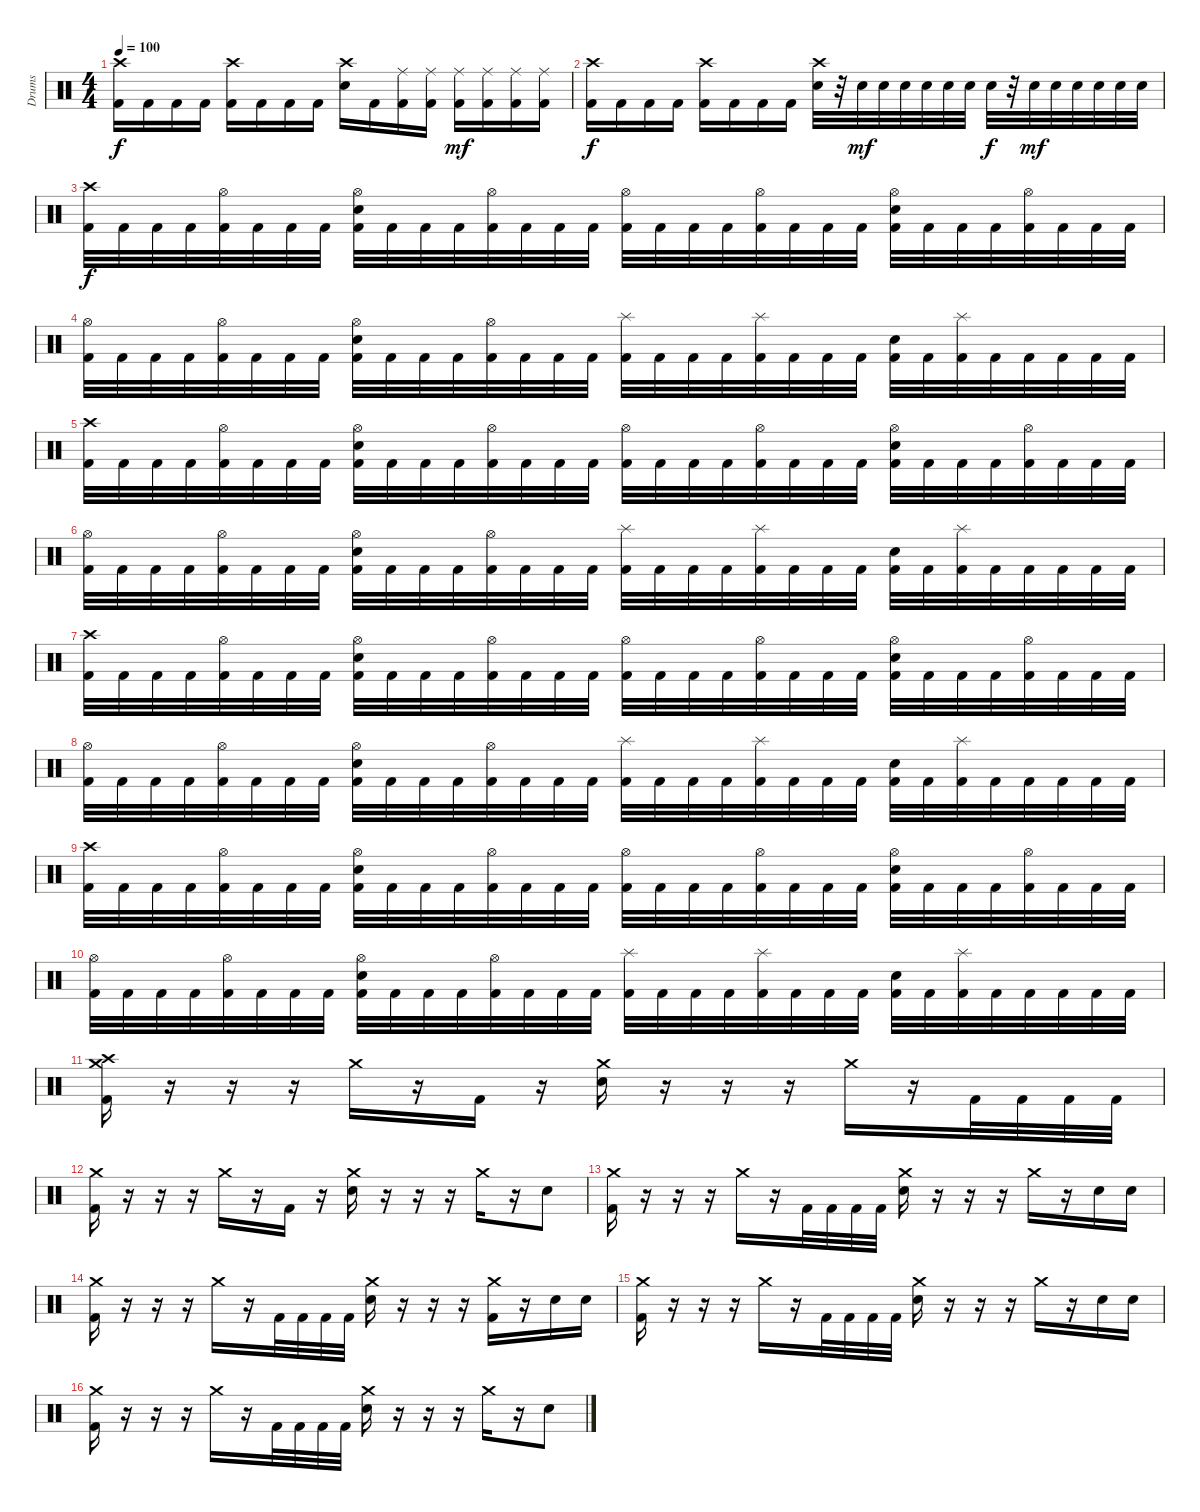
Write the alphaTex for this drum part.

\track ("Drums " "Drums ") {instrument percussion}
\staff {score}
\articulation defaults
\ts (4 4)
\tempo 100
\clef neutral
\ks c
("Crash high (hit)" "Kick (hit) 2").16{dy f} "Kick (hit) 2".16 "Kick (hit) 2".16 "Kick (hit) 2".16 ("Crash high (hit)" "Kick (hit) 2").16 "Kick (hit) 2".16 "Kick (hit) 2".16 "Kick (hit) 2".16 ("Crash high (hit)" "Electric Snare (hit)").16 "Kick (hit) 2".16 ("Ride (middle)" "Kick (hit) 2").16 ("Ride (middle)" "Kick (hit) 2").16 ("Ride (middle)" "Kick (hit) 2").16{dy mf} ("Ride (middle)" "Kick (hit) 2").16 ("Ride (middle)" "Kick (hit) 2").16 ("Ride (middle)" "Kick (hit) 2").16 |
("Crash high (hit)" "Kick (hit) 2").16{dy f} "Kick (hit) 2".16 "Kick (hit) 2".16 "Kick (hit) 2".16 ("Crash high (hit)" "Kick (hit) 2").16 "Kick (hit) 2".16 "Kick (hit) 2".16 "Kick (hit) 2".16 ("Crash high (hit)" "Electric Snare (hit)").32 r.32 "Electric Snare (hit)".32{dy mf} "Electric Snare (hit)".32 "Electric Snare (hit)".32 "Electric Snare (hit)".32 "Electric Snare (hit)".32 "Electric Snare (hit)".32 "Electric Snare (hit)".32{dy f} r.32 "Electric Snare (hit)".32{dy mf} "Electric Snare (hit)".32 "Electric Snare (hit)".32 "Electric Snare (hit)".32 "Electric Snare (hit)".32 "Electric Snare (hit)".32 |
("Crash high (hit)" "Kick (hit) 2").32{dy f} "Kick (hit) 2".32 "Kick (hit) 2".32 "Kick (hit) 2".32 ("Hi-Hat (open)" "Kick (hit) 2").32 "Kick (hit) 2".32 "Kick (hit) 2".32 "Kick (hit) 2".32 ("Hi-Hat (open)" "Electric Snare (hit)" "Kick (hit) 2").32 "Kick (hit) 2".32 "Kick (hit) 2".32 "Kick (hit) 2".32 ("Hi-Hat (open)" "Kick (hit) 2").32 "Kick (hit) 2".32 "Kick (hit) 2".32 "Kick (hit) 2".32 ("Hi-Hat (open)" "Kick (hit) 2").32 "Kick (hit) 2".32 "Kick (hit) 2".32 "Kick (hit) 2".32 ("Hi-Hat (open)" "Kick (hit) 2").32 "Kick (hit) 2".32 "Kick (hit) 2".32 "Kick (hit) 2".32 ("Hi-Hat (open)" "Electric Snare (hit)" "Kick (hit) 2").32 "Kick (hit) 2".32 "Kick (hit) 2".32 "Kick (hit) 2".32 ("Hi-Hat (open)" "Kick (hit) 2").32 "Kick (hit) 2".32 "Kick (hit) 2".32 "Kick (hit) 2".32 |
("Hi-Hat (open)" "Kick (hit) 2").32 "Kick (hit) 2".32 "Kick (hit) 2".32 "Kick (hit) 2".32 ("Hi-Hat (open)" "Kick (hit) 2").32 "Kick (hit) 2".32 "Kick (hit) 2".32 "Kick (hit) 2".32 ("Hi-Hat (open)" "Electric Snare (hit)" "Kick (hit) 2").32 "Kick (hit) 2".32 "Kick (hit) 2".32 "Kick (hit) 2".32 ("Hi-Hat (open)" "Kick (hit) 2").32 "Kick (hit) 2".32 "Kick (hit) 2".32 "Kick (hit) 2".32 ("Splash (hit)" "Kick (hit) 2").32 "Kick (hit) 2".32 "Kick (hit) 2".32 "Kick (hit) 2".32 ("Splash (hit)" "Kick (hit) 2").32 "Kick (hit) 2".32 "Kick (hit) 2".32 "Kick (hit) 2".32 ("Electric Snare (hit)" "Kick (hit) 2").32 "Kick (hit) 2".32 ("Splash (hit)" "Kick (hit) 2").32 "Kick (hit) 2".32 "Kick (hit) 2".32 "Kick (hit) 2".32 "Kick (hit) 2".32 "Kick (hit) 2".32 |
("Crash high (hit)" "Kick (hit) 2").32 "Kick (hit) 2".32 "Kick (hit) 2".32 "Kick (hit) 2".32 ("Hi-Hat (open)" "Kick (hit) 2").32 "Kick (hit) 2".32 "Kick (hit) 2".32 "Kick (hit) 2".32 ("Hi-Hat (open)" "Electric Snare (hit)" "Kick (hit) 2").32 "Kick (hit) 2".32 "Kick (hit) 2".32 "Kick (hit) 2".32 ("Hi-Hat (open)" "Kick (hit) 2").32 "Kick (hit) 2".32 "Kick (hit) 2".32 "Kick (hit) 2".32 ("Hi-Hat (open)" "Kick (hit) 2").32 "Kick (hit) 2".32 "Kick (hit) 2".32 "Kick (hit) 2".32 ("Hi-Hat (open)" "Kick (hit) 2").32 "Kick (hit) 2".32 "Kick (hit) 2".32 "Kick (hit) 2".32 ("Hi-Hat (open)" "Electric Snare (hit)" "Kick (hit) 2").32 "Kick (hit) 2".32 "Kick (hit) 2".32 "Kick (hit) 2".32 ("Hi-Hat (open)" "Kick (hit) 2").32 "Kick (hit) 2".32 "Kick (hit) 2".32 "Kick (hit) 2".32 |
("Hi-Hat (open)" "Kick (hit) 2").32 "Kick (hit) 2".32 "Kick (hit) 2".32 "Kick (hit) 2".32 ("Hi-Hat (open)" "Kick (hit) 2").32 "Kick (hit) 2".32 "Kick (hit) 2".32 "Kick (hit) 2".32 ("Hi-Hat (open)" "Electric Snare (hit)" "Kick (hit) 2").32 "Kick (hit) 2".32 "Kick (hit) 2".32 "Kick (hit) 2".32 ("Hi-Hat (open)" "Kick (hit) 2").32 "Kick (hit) 2".32 "Kick (hit) 2".32 "Kick (hit) 2".32 ("Splash (hit)" "Kick (hit) 2").32 "Kick (hit) 2".32 "Kick (hit) 2".32 "Kick (hit) 2".32 ("Splash (hit)" "Kick (hit) 2").32 "Kick (hit) 2".32 "Kick (hit) 2".32 "Kick (hit) 2".32 ("Electric Snare (hit)" "Kick (hit) 2").32 "Kick (hit) 2".32 ("Splash (hit)" "Kick (hit) 2").32 "Kick (hit) 2".32 "Kick (hit) 2".32 "Kick (hit) 2".32 "Kick (hit) 2".32 "Kick (hit) 2".32 |
("Crash high (hit)" "Kick (hit) 2").32 "Kick (hit) 2".32 "Kick (hit) 2".32 "Kick (hit) 2".32 ("Hi-Hat (open)" "Kick (hit) 2").32 "Kick (hit) 2".32 "Kick (hit) 2".32 "Kick (hit) 2".32 ("Hi-Hat (open)" "Electric Snare (hit)" "Kick (hit) 2").32 "Kick (hit) 2".32 "Kick (hit) 2".32 "Kick (hit) 2".32 ("Hi-Hat (open)" "Kick (hit) 2").32 "Kick (hit) 2".32 "Kick (hit) 2".32 "Kick (hit) 2".32 ("Hi-Hat (open)" "Kick (hit) 2").32 "Kick (hit) 2".32 "Kick (hit) 2".32 "Kick (hit) 2".32 ("Hi-Hat (open)" "Kick (hit) 2").32 "Kick (hit) 2".32 "Kick (hit) 2".32 "Kick (hit) 2".32 ("Hi-Hat (open)" "Electric Snare (hit)" "Kick (hit) 2").32 "Kick (hit) 2".32 "Kick (hit) 2".32 "Kick (hit) 2".32 ("Hi-Hat (open)" "Kick (hit) 2").32 "Kick (hit) 2".32 "Kick (hit) 2".32 "Kick (hit) 2".32 |
("Hi-Hat (open)" "Kick (hit) 2").32 "Kick (hit) 2".32 "Kick (hit) 2".32 "Kick (hit) 2".32 ("Hi-Hat (open)" "Kick (hit) 2").32 "Kick (hit) 2".32 "Kick (hit) 2".32 "Kick (hit) 2".32 ("Hi-Hat (open)" "Electric Snare (hit)" "Kick (hit) 2").32 "Kick (hit) 2".32 "Kick (hit) 2".32 "Kick (hit) 2".32 ("Hi-Hat (open)" "Kick (hit) 2").32 "Kick (hit) 2".32 "Kick (hit) 2".32 "Kick (hit) 2".32 ("Splash (hit)" "Kick (hit) 2").32 "Kick (hit) 2".32 "Kick (hit) 2".32 "Kick (hit) 2".32 ("Splash (hit)" "Kick (hit) 2").32 "Kick (hit) 2".32 "Kick (hit) 2".32 "Kick (hit) 2".32 ("Electric Snare (hit)" "Kick (hit) 2").32 "Kick (hit) 2".32 ("Splash (hit)" "Kick (hit) 2").32 "Kick (hit) 2".32 "Kick (hit) 2".32 "Kick (hit) 2".32 "Kick (hit) 2".32 "Kick (hit) 2".32 |
("Crash high (hit)" "Kick (hit) 2").32 "Kick (hit) 2".32 "Kick (hit) 2".32 "Kick (hit) 2".32 ("Hi-Hat (open)" "Kick (hit) 2").32 "Kick (hit) 2".32 "Kick (hit) 2".32 "Kick (hit) 2".32 ("Hi-Hat (open)" "Electric Snare (hit)" "Kick (hit) 2").32 "Kick (hit) 2".32 "Kick (hit) 2".32 "Kick (hit) 2".32 ("Hi-Hat (open)" "Kick (hit) 2").32 "Kick (hit) 2".32 "Kick (hit) 2".32 "Kick (hit) 2".32 ("Hi-Hat (open)" "Kick (hit) 2").32 "Kick (hit) 2".32 "Kick (hit) 2".32 "Kick (hit) 2".32 ("Hi-Hat (open)" "Kick (hit) 2").32 "Kick (hit) 2".32 "Kick (hit) 2".32 "Kick (hit) 2".32 ("Hi-Hat (open)" "Electric Snare (hit)" "Kick (hit) 2").32 "Kick (hit) 2".32 "Kick (hit) 2".32 "Kick (hit) 2".32 ("Hi-Hat (open)" "Kick (hit) 2").32 "Kick (hit) 2".32 "Kick (hit) 2".32 "Kick (hit) 2".32 |
("Hi-Hat (open)" "Kick (hit) 2").32 "Kick (hit) 2".32 "Kick (hit) 2".32 "Kick (hit) 2".32 ("Hi-Hat (open)" "Kick (hit) 2").32 "Kick (hit) 2".32 "Kick (hit) 2".32 "Kick (hit) 2".32 ("Hi-Hat (open)" "Electric Snare (hit)" "Kick (hit) 2").32 "Kick (hit) 2".32 "Kick (hit) 2".32 "Kick (hit) 2".32 ("Hi-Hat (open)" "Kick (hit) 2").32 "Kick (hit) 2".32 "Kick (hit) 2".32 "Kick (hit) 2".32 ("Splash (hit)" "Kick (hit) 2").32 "Kick (hit) 2".32 "Kick (hit) 2".32 "Kick (hit) 2".32 ("Splash (hit)" "Kick (hit) 2").32 "Kick (hit) 2".32 "Kick (hit) 2".32 "Kick (hit) 2".32 ("Electric Snare (hit)" "Kick (hit) 2").32 "Kick (hit) 2".32 ("Splash (hit)" "Kick (hit) 2").32 "Kick (hit) 2".32 "Kick (hit) 2".32 "Kick (hit) 2".32 "Kick (hit) 2".32 "Kick (hit) 2".32 |
("Crash medium (hit)" "Crash high (hit)" "Kick (hit) 2").16 r.16 r.16 r.16 "Crash medium (hit)".16 r.16 "Kick (hit) 2".16 r.16 ("Crash medium (hit)" "Electric Snare (hit)").16 r.16 r.16 r.16 "Crash medium (hit)".16 r.16 "Kick (hit) 2".32 "Kick (hit) 2".32 "Kick (hit) 2".32 "Kick (hit) 2".32 |
("Crash medium (hit)" "Kick (hit) 2").16 r.16 r.16 r.16 "Crash medium (hit)".16 r.16 "Kick (hit) 2".16 r.16 ("Crash medium (hit)" "Electric Snare (hit)").16 r.16 r.16 r.16 "Crash medium (hit)".16 r.16 "Electric Snare (hit)".8 |
("Crash medium (hit)" "Kick (hit) 2").16 r.16 r.16 r.16 "Crash medium (hit)".16 r.16 "Kick (hit) 2".32 "Kick (hit) 2".32 "Kick (hit) 2".32 "Kick (hit) 2".32 ("Crash medium (hit)" "Electric Snare (hit)").16 r.16 r.16 r.16 "Crash medium (hit)".16 r.16 "Electric Snare (hit)".16 "Electric Snare (hit)".16 |
("Crash medium (hit)" "Kick (hit) 2").16 r.16 r.16 r.16 "Crash medium (hit)".16 r.16 "Kick (hit) 2".32 "Kick (hit) 2".32 "Kick (hit) 2".32 "Kick (hit) 2".32 ("Crash medium (hit)" "Electric Snare (hit)").16 r.16 r.16 r.16 ("Crash medium (hit)" "Kick (hit) 2").16 r.16 "Electric Snare (hit)".16 "Electric Snare (hit)".16 |
("Crash medium (hit)" "Kick (hit) 2").16 r.16 r.16 r.16 "Crash medium (hit)".16 r.16 "Kick (hit) 2".32 "Kick (hit) 2".32 "Kick (hit) 2".32 "Kick (hit) 2".32 ("Crash medium (hit)" "Electric Snare (hit)").16 r.16 r.16 r.16 "Crash medium (hit)".16 r.16 "Electric Snare (hit)".16 "Electric Snare (hit)".16 |
("Crash medium (hit)" "Kick (hit) 2").16 r.16 r.16 r.16 "Crash medium (hit)".16 r.16 "Kick (hit) 2".32 "Kick (hit) 2".32 "Kick (hit) 2".32 "Kick (hit) 2".32 ("Crash medium (hit)" "Electric Snare (hit)").16 r.16 r.16 r.16 "Crash medium (hit)".16 r.16 "Electric Snare (hit)".8
